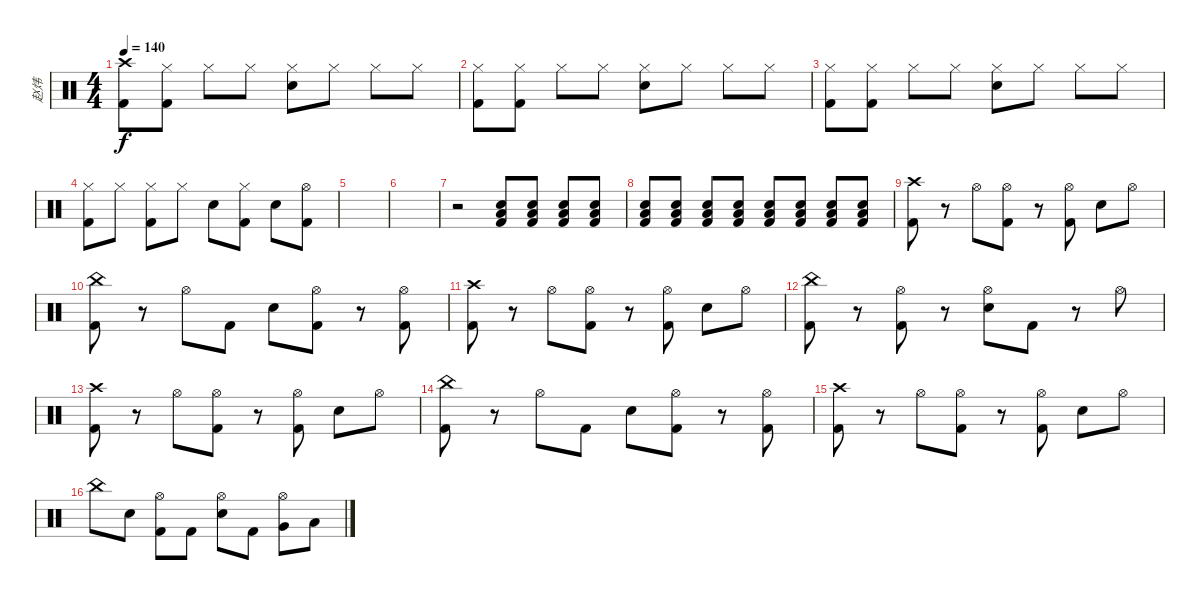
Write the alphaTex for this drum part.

\track ("赵炜" "赵炜") {instrument percussion}
\staff {score}
\articulation defaults
\ts (4 4)
\tempo 140
\clef neutral
\ks c
("Crash high (hit)" "Kick (hit) 2").8{dy f} ("Hi-Hat (closed)" "Kick (hit) 2").8 "Hi-Hat (closed)".8 "Hi-Hat (closed)".8 ("Hi-Hat (closed)" "Snare (hit) 2").8 "Hi-Hat (closed)".8 "Hi-Hat (closed)".8 "Hi-Hat (closed)".8 |
("Hi-Hat (closed)" "Kick (hit) 2").8 ("Hi-Hat (closed)" "Kick (hit) 2").8 "Hi-Hat (closed)".8 "Hi-Hat (closed)".8 ("Hi-Hat (closed)" "Snare (hit) 2").8 "Hi-Hat (closed)".8 "Hi-Hat (closed)".8 "Hi-Hat (closed)".8 |
("Hi-Hat (closed)" "Kick (hit) 2").8 ("Hi-Hat (closed)" "Kick (hit) 2").8 "Hi-Hat (closed)".8 "Hi-Hat (closed)".8 ("Hi-Hat (closed)" "Snare (hit) 2").8 "Hi-Hat (closed)".8 "Hi-Hat (closed)".8 "Hi-Hat (closed)".8 |
("Hi-Hat (closed)" "Kick (hit) 2").8 "Hi-Hat (closed)".8 ("Hi-Hat (closed)" "Kick (hit) 2").8 "Hi-Hat (closed)".8 "Snare (hit) 2".8 ("Hi-Hat (closed)" "Kick (hit) 2").8 "Snare (hit) 2".8 ("Hi-Hat (open)" "Kick (hit) 2").8 |
|
|
r.2 ("Low Floor Tom (hit)" "Snare (hit) 2" "Kick (hit) 2").8 ("Low Floor Tom (hit)" "Snare (hit) 2" "Kick (hit) 2").8 ("Low Floor Tom (hit)" "Snare (hit) 2" "Kick (hit) 2").8 ("Low Floor Tom (hit)" "Snare (hit) 2" "Kick (hit) 2").8 |
("Low Floor Tom (hit)" "Snare (hit) 2" "Kick (hit) 2").8 ("Low Floor Tom (hit)" "Snare (hit) 2" "Kick (hit) 2").8 ("Low Floor Tom (hit)" "Snare (hit) 2" "Kick (hit) 2").8 ("Low Floor Tom (hit)" "Snare (hit) 2" "Kick (hit) 2").8 ("Low Floor Tom (hit)" "Snare (hit) 2" "Kick (hit) 2").8 ("Low Floor Tom (hit)" "Snare (hit) 2" "Kick (hit) 2").8 ("Low Floor Tom (hit)" "Snare (hit) 2" "Kick (hit) 2").8 ("Low Floor Tom (hit)" "Snare (hit) 2" "Kick (hit) 2").8 |
("Crash high (hit)" "Kick (hit) 2").8 r.8 "Hi-Hat (open)".8 ("Hi-Hat (open)" "Kick (hit) 2").8 r.8 ("Hi-Hat (open)" "Kick (hit) 2").8 "Snare (hit) 2".8 "Hi-Hat (open)".8 |
("China (hit)" "Kick (hit) 2").8 r.8 "Hi-Hat (open)".8 "Kick (hit) 2".8 "Snare (hit) 2".8 ("Hi-Hat (open)" "Kick (hit) 2").8 r.8 ("Hi-Hat (open)" "Kick (hit) 2").8 |
("Crash high (hit)" "Kick (hit) 2").8 r.8 "Hi-Hat (open)".8 ("Hi-Hat (open)" "Kick (hit) 2").8 r.8 ("Hi-Hat (open)" "Kick (hit) 2").8 "Snare (hit) 2".8 "Hi-Hat (open)".8 |
("China (hit)" "Kick (hit) 2").8 r.8 ("Hi-Hat (open)" "Kick (hit) 2").8 r.8 ("Hi-Hat (open)" "Snare (hit) 2").8 "Kick (hit) 2".8 r.8 "Hi-Hat (open)".8 |
("Crash high (hit)" "Kick (hit) 2").8 r.8 "Hi-Hat (open)".8 ("Hi-Hat (open)" "Kick (hit) 2").8 r.8 ("Hi-Hat (open)" "Kick (hit) 2").8 "Snare (hit) 2".8 "Hi-Hat (open)".8 |
("China (hit)" "Kick (hit) 2").8 r.8 "Hi-Hat (open)".8 "Kick (hit) 2".8 "Snare (hit) 2".8 ("Hi-Hat (open)" "Kick (hit) 2").8 r.8 ("Hi-Hat (open)" "Kick (hit) 2").8 |
("Crash high (hit)" "Kick (hit) 2").8 r.8 "Hi-Hat (open)".8 ("Hi-Hat (open)" "Kick (hit) 2").8 r.8 ("Hi-Hat (open)" "Kick (hit) 2").8 "Snare (hit) 2".8 "Hi-Hat (open)".8 |
"China (hit)".8 "Snare (hit) 2".8 ("Hi-Hat (open)" "Kick (hit) 2").8 "Kick (hit) 2".8 ("Hi-Hat (open)" "Snare (hit) 2").8 "Kick (hit) 2".8 ("Hi-Hat (open)" "Very Low Tom (hit)").8 "Low Floor Tom (hit)".8
